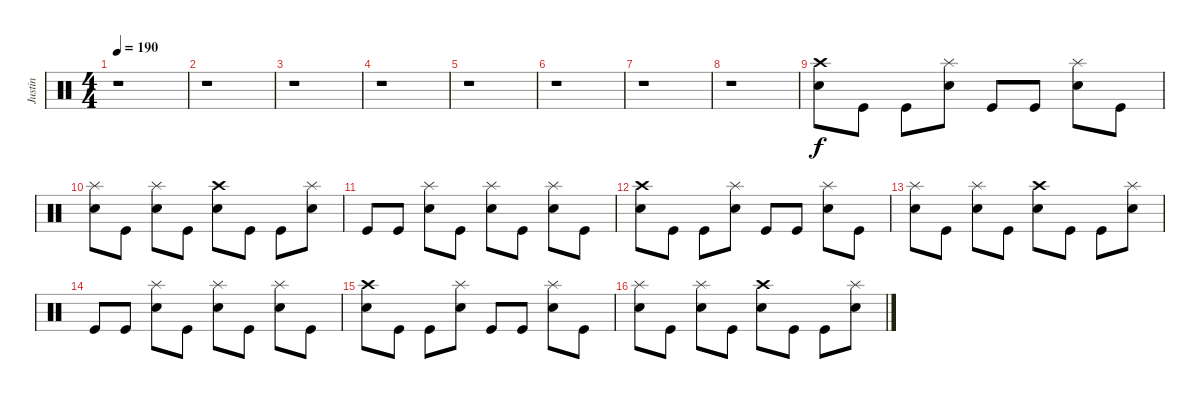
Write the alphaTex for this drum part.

\track ("Justin" "Justin") {instrument percussion}
\staff {score}
\articulation defaults
\ts (4 4)
\tempo 190
\clef neutral
\ks c
r.1{dy f} |
r.1 |
r.1 |
r.1 |
r.1 |
r.1 |
r.1 |
r.1 |
("Crash high (hit)" "Electric Snare (hit)").8 "Kick (hit)".8 "Kick (hit)".8 ("Splash (hit)" "Electric Snare (hit)").8 "Kick (hit)".8 "Kick (hit)".8 ("Splash (hit)" "Electric Snare (hit)").8 "Kick (hit)".8 |
("Splash (hit)" "Electric Snare (hit)").8 "Kick (hit)".8 ("Splash (hit)" "Electric Snare (hit)").8 "Kick (hit)".8 ("Crash high (hit)" "Electric Snare (hit)").8 "Kick (hit)".8 "Kick (hit)".8 ("Splash (hit)" "Electric Snare (hit)").8 |
"Kick (hit)".8 "Kick (hit)".8 ("Splash (hit)" "Electric Snare (hit)").8 "Kick (hit)".8 ("Splash (hit)" "Electric Snare (hit)").8 "Kick (hit)".8 ("Splash (hit)" "Electric Snare (hit)").8 "Kick (hit)".8 |
("Crash high (hit)" "Electric Snare (hit)").8 "Kick (hit)".8 "Kick (hit)".8 ("Splash (hit)" "Electric Snare (hit)").8 "Kick (hit)".8 "Kick (hit)".8 ("Splash (hit)" "Electric Snare (hit)").8 "Kick (hit)".8 |
("Splash (hit)" "Electric Snare (hit)").8 "Kick (hit)".8 ("Splash (hit)" "Electric Snare (hit)").8 "Kick (hit)".8 ("Crash high (hit)" "Electric Snare (hit)").8 "Kick (hit)".8 "Kick (hit)".8 ("Splash (hit)" "Electric Snare (hit)").8 |
"Kick (hit)".8 "Kick (hit)".8 ("Splash (hit)" "Electric Snare (hit)").8 "Kick (hit)".8 ("Splash (hit)" "Electric Snare (hit)").8 "Kick (hit)".8 ("Splash (hit)" "Electric Snare (hit)").8 "Kick (hit)".8 |
("Crash high (hit)" "Electric Snare (hit)").8 "Kick (hit)".8 "Kick (hit)".8 ("Splash (hit)" "Electric Snare (hit)").8 "Kick (hit)".8 "Kick (hit)".8 ("Splash (hit)" "Electric Snare (hit)").8 "Kick (hit)".8 |
("Splash (hit)" "Electric Snare (hit)").8 "Kick (hit)".8 ("Splash (hit)" "Electric Snare (hit)").8 "Kick (hit)".8 ("Crash high (hit)" "Electric Snare (hit)").8 "Kick (hit)".8 "Kick (hit)".8 ("Splash (hit)" "Electric Snare (hit)").8
